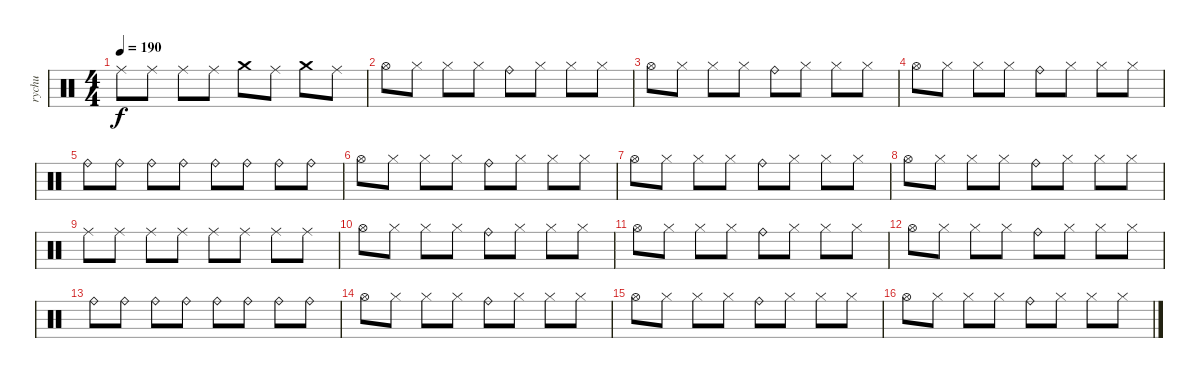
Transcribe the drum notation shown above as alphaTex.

\track ("rychu" "rychu") {instrument percussion}
\staff {score}
\articulation defaults
\ts (4 4)
\tempo 190
\clef neutral
\ks c "Ride (middle)".8{dy f} "Ride (middle)".8 "Ride (middle)".8 "Ride (middle)".8 "Crash medium (hit)".8 "Ride (middle)".8 "Crash medium (hit)".8 "Ride (middle)".8
|
"Hi-Hat (open)".8 "Hi-Hat (closed)".8 "Hi-Hat (closed)".8 "Hi-Hat (closed)".8 "Ride (bell)".8 "Hi-Hat (closed)".8 "Hi-Hat (closed)".8 "Hi-Hat (closed)".8 |
"Hi-Hat (open)".8 "Hi-Hat (closed)".8 "Hi-Hat (closed)".8 "Hi-Hat (closed)".8 "Ride (bell)".8 "Hi-Hat (closed)".8 "Hi-Hat (closed)".8 "Hi-Hat (closed)".8 |
"Hi-Hat (open)".8 "Hi-Hat (closed)".8 "Hi-Hat (closed)".8 "Hi-Hat (closed)".8 "Ride (bell)".8 "Hi-Hat (closed)".8 "Hi-Hat (closed)".8 "Hi-Hat (closed)".8 |
"Ride (bell)".8 "Ride (bell)".8 "Ride (bell)".8 "Ride (bell)".8 "Ride (bell)".8 "Ride (bell)".8 "Ride (bell)".8 "Ride (bell)".8 |
"Hi-Hat (open)".8 "Hi-Hat (closed)".8 "Hi-Hat (closed)".8 "Hi-Hat (closed)".8 "Ride (bell)".8 "Hi-Hat (closed)".8 "Hi-Hat (closed)".8 "Hi-Hat (closed)".8 |
"Hi-Hat (open)".8 "Hi-Hat (closed)".8 "Hi-Hat (closed)".8 "Hi-Hat (closed)".8 "Ride (bell)".8 "Hi-Hat (closed)".8 "Hi-Hat (closed)".8 "Hi-Hat (closed)".8 |
"Hi-Hat (open)".8 "Hi-Hat (closed)".8 "Hi-Hat (closed)".8 "Hi-Hat (closed)".8 "Ride (bell)".8 "Hi-Hat (closed)".8 "Hi-Hat (closed)".8 "Hi-Hat (closed)".8 |
"Ride (middle)".8 "Ride (middle)".8 "Ride (middle)".8 "Ride (middle)".8 "Ride (middle)".8 "Ride (middle)".8 "Ride (middle)".8 "Ride (middle)".8 |
"Hi-Hat (open)".8 "Hi-Hat (closed)".8 "Hi-Hat (closed)".8 "Hi-Hat (closed)".8 "Ride (bell)".8 "Hi-Hat (closed)".8 "Hi-Hat (closed)".8 "Hi-Hat (closed)".8 |
"Hi-Hat (open)".8 "Hi-Hat (closed)".8 "Hi-Hat (closed)".8 "Hi-Hat (closed)".8 "Ride (bell)".8 "Hi-Hat (closed)".8 "Hi-Hat (closed)".8 "Hi-Hat (closed)".8 |
"Hi-Hat (open)".8 "Hi-Hat (closed)".8 "Hi-Hat (closed)".8 "Hi-Hat (closed)".8 "Ride (bell)".8 "Hi-Hat (closed)".8 "Hi-Hat (closed)".8 "Hi-Hat (closed)".8 |
"Ride (bell)".8 "Ride (bell)".8 "Ride (bell)".8 "Ride (bell)".8 "Ride (bell)".8 "Ride (bell)".8 "Ride (bell)".8 "Ride (bell)".8 |
"Hi-Hat (open)".8 "Hi-Hat (closed)".8 "Hi-Hat (closed)".8 "Hi-Hat (closed)".8 "Ride (bell)".8 "Hi-Hat (closed)".8 "Hi-Hat (closed)".8 "Hi-Hat (closed)".8 |
"Hi-Hat (open)".8 "Hi-Hat (closed)".8 "Hi-Hat (closed)".8 "Hi-Hat (closed)".8 "Ride (bell)".8 "Hi-Hat (closed)".8 "Hi-Hat (closed)".8 "Hi-Hat (closed)".8 |
"Hi-Hat (open)".8 "Hi-Hat (closed)".8 "Hi-Hat (closed)".8 "Hi-Hat (closed)".8 "Ride (bell)".8 "Hi-Hat (closed)".8 "Hi-Hat (closed)".8 "Hi-Hat (closed)".8
